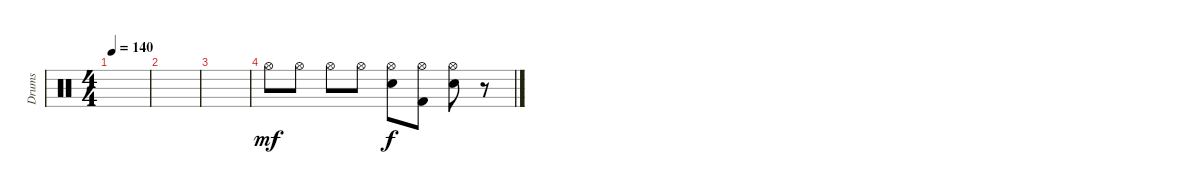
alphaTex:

\track ("Drums" "Drums") {instrument percussion}
\staff {score}
\articulation defaults
\ts (4 4)
\tempo 140
\clef neutral
\ks c
|
|
|
"Hi-Hat (open)".8{dy mf} "Hi-Hat (open)".8 "Hi-Hat (open)".8 "Hi-Hat (open)".8 ("Hi-Hat (open)" "Electric Snare (hit)").8{dy f} ("Hi-Hat (open)" "Kick (hit) 2").8 ("Hi-Hat (open)" "Electric Snare (hit)").8 r.8
